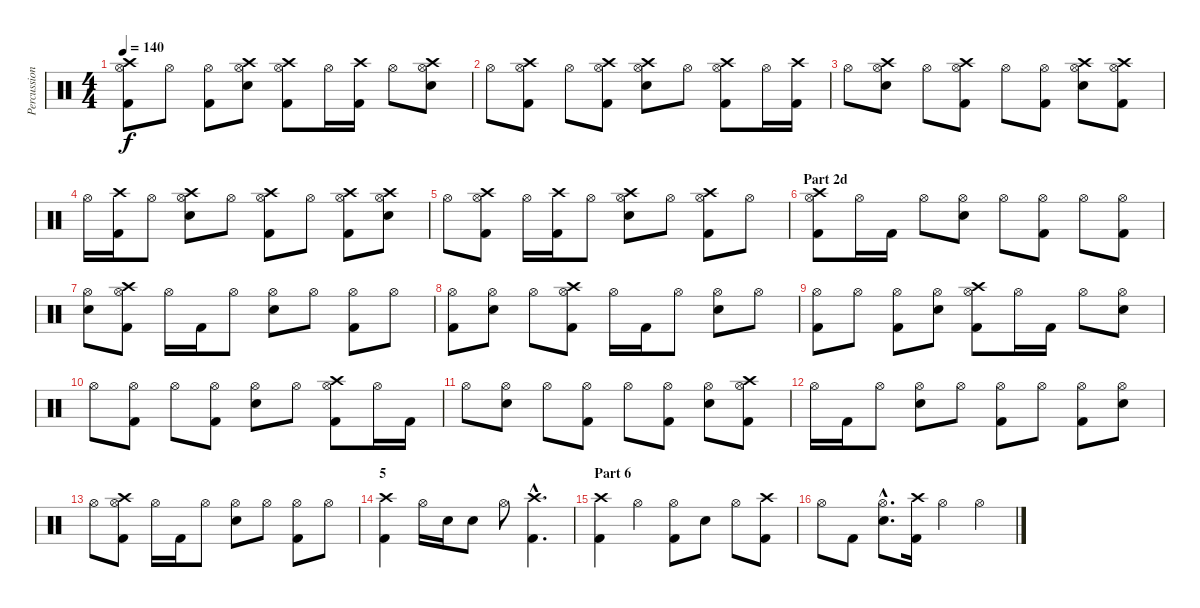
\track ("Percussion" "Percussion") {instrument percussion}
\staff {score}
\articulation defaults
\ts (4 4)
\tempo 140
\clef neutral
\ks c
("Crash high (hit)" "Hi-Hat (open)" "Kick (hit) 2").8{dy f} "Hi-Hat (open)".8 ("Hi-Hat (open)" "Kick (hit) 2").8 ("Crash high (hit)" "Hi-Hat (open)" "Electric Snare (hit)").8 ("Crash high (hit)" "Hi-Hat (open)" "Kick (hit) 2").8 "Hi-Hat (open)".16 ("Crash high (hit)" "Kick (hit) 2").16 "Hi-Hat (open)".8 ("Crash high (hit)" "Hi-Hat (open)" "Electric Snare (hit)").8 |
"Hi-Hat (open)".8 ("Crash high (hit)" "Hi-Hat (open)" "Kick (hit) 2").8 "Hi-Hat (open)".8 ("Crash high (hit)" "Hi-Hat (open)" "Kick (hit) 2").8 ("Crash high (hit)" "Hi-Hat (open)" "Electric Snare (hit)").8 "Hi-Hat (open)".8 ("Crash high (hit)" "Hi-Hat (open)" "Kick (hit) 2").8 "Hi-Hat (open)".16 ("Crash high (hit)" "Kick (hit) 2").16 |
"Hi-Hat (open)".8 ("Crash high (hit)" "Hi-Hat (open)" "Electric Snare (hit)").8 "Hi-Hat (open)".8 ("Crash high (hit)" "Hi-Hat (open)" "Kick (hit) 2").8 "Hi-Hat (open)".8 ("Hi-Hat (open)" "Kick (hit) 2").8 ("Crash high (hit)" "Hi-Hat (open)" "Electric Snare (hit)").8 ("Crash high (hit)" "Hi-Hat (open)" "Kick (hit) 2").8 |
"Hi-Hat (open)".16 ("Crash high (hit)" "Kick (hit) 2").16 "Hi-Hat (open)".8 ("Crash high (hit)" "Hi-Hat (open)" "Electric Snare (hit)").8 "Hi-Hat (open)".8 ("Crash high (hit)" "Hi-Hat (open)" "Kick (hit) 2").8 "Hi-Hat (open)".8 ("Crash high (hit)" "Hi-Hat (open)" "Kick (hit) 2").8 ("Crash high (hit)" "Hi-Hat (open)" "Electric Snare (hit)").8 |
"Hi-Hat (open)".8 ("Crash high (hit)" "Hi-Hat (open)" "Kick (hit) 2").8 "Hi-Hat (open)".16 ("Crash high (hit)" "Kick (hit) 2").16 "Hi-Hat (open)".8 ("Crash high (hit)" "Hi-Hat (open)" "Electric Snare (hit)").8 "Hi-Hat (open)".8 ("Crash high (hit)" "Hi-Hat (open)" "Kick (hit) 2").8 "Hi-Hat (open)".8 |
\section ("" "Part 2d")
("Crash high (hit)" "Hi-Hat (open)" "Kick (hit) 2").8 "Hi-Hat (open)".16 "Kick (hit) 2".16 "Hi-Hat (open)".8 ("Hi-Hat (open)" "Electric Snare (hit)").8 "Hi-Hat (open)".8 ("Hi-Hat (open)" "Kick (hit) 2").8 "Hi-Hat (open)".8 ("Hi-Hat (open)" "Kick (hit) 2").8 |
("Hi-Hat (open)" "Electric Snare (hit)").8 ("Crash high (hit)" "Hi-Hat (open)" "Kick (hit) 2").8 "Hi-Hat (open)".16 "Kick (hit) 2".16 "Hi-Hat (open)".8 ("Hi-Hat (open)" "Electric Snare (hit)").8 "Hi-Hat (open)".8 ("Hi-Hat (open)" "Kick (hit) 2").8 "Hi-Hat (open)".8 |
("Hi-Hat (open)" "Kick (hit) 2").8 ("Hi-Hat (open)" "Electric Snare (hit)").8 "Hi-Hat (open)".8 ("Crash high (hit)" "Hi-Hat (open)" "Kick (hit) 2").8 "Hi-Hat (open)".16 "Kick (hit) 2".16 "Hi-Hat (open)".8 ("Hi-Hat (open)" "Electric Snare (hit)").8 "Hi-Hat (open)".8 |
("Hi-Hat (open)" "Kick (hit) 2").8 "Hi-Hat (open)".8 ("Hi-Hat (open)" "Kick (hit) 2").8 ("Hi-Hat (open)" "Electric Snare (hit)").8 ("Crash high (hit)" "Hi-Hat (open)" "Kick (hit) 2").8 "Hi-Hat (open)".16 "Kick (hit) 2".16 "Hi-Hat (open)".8 ("Hi-Hat (open)" "Electric Snare (hit)").8 |
"Hi-Hat (open)".8 ("Hi-Hat (open)" "Kick (hit) 2").8 "Hi-Hat (open)".8 ("Hi-Hat (open)" "Kick (hit) 2").8 ("Hi-Hat (open)" "Electric Snare (hit)").8 "Hi-Hat (open)".8 ("Crash high (hit)" "Hi-Hat (open)" "Kick (hit) 2").8 "Hi-Hat (open)".16 "Kick (hit) 2".16 |
"Hi-Hat (open)".8 ("Hi-Hat (open)" "Electric Snare (hit)").8 "Hi-Hat (open)".8 ("Hi-Hat (open)" "Kick (hit) 2").8 "Hi-Hat (open)".8 ("Hi-Hat (open)" "Kick (hit) 2").8 ("Hi-Hat (open)" "Electric Snare (hit)").8 ("Crash high (hit)" "Hi-Hat (open)" "Kick (hit) 2").8 |
"Hi-Hat (open)".16 "Kick (hit) 2".16 "Hi-Hat (open)".8 ("Hi-Hat (open)" "Electric Snare (hit)").8 "Hi-Hat (open)".8 ("Hi-Hat (open)" "Kick (hit) 2").8 "Hi-Hat (open)".8 ("Hi-Hat (open)" "Kick (hit) 2").8 ("Hi-Hat (open)" "Electric Snare (hit)").8 |
"Hi-Hat (open)".8 ("Crash high (hit)" "Hi-Hat (open)" "Kick (hit) 2").8 "Hi-Hat (open)".16 "Kick (hit) 2".16 "Hi-Hat (open)".8 ("Hi-Hat (open)" "Electric Snare (hit)").8 "Hi-Hat (open)".8 ("Hi-Hat (open)" "Kick (hit) 2").8 "Hi-Hat (open)".8 |
\section ("" "5")
("Crash high (hit)" "Kick (hit) 2").4 "Hi-Hat (open)".16 "Electric Snare (hit)".16 "Electric Snare (hit)".8 "Hi-Hat (open)".8 ("Crash high (hit)"{hac} "Kick (hit) 2"{hac}).4{d} |
\section ("" "Part 6")
("Crash high (hit)" "Kick (hit) 2").4 "Hi-Hat (open)".4 ("Hi-Hat (open)" "Kick (hit) 2").8 "Electric Snare (hit)".8 "Hi-Hat (open)".8 ("Crash high (hit)" "Kick (hit) 2").8 |
"Hi-Hat (open)".8 "Kick (hit) 2".8 ("Hi-Hat (open)"{hac} "Electric Snare (hit)"{hac}).8{d} ("Crash high (hit)" "Kick (hit) 2").16 "Hi-Hat (open)".4 "Hi-Hat (open)".4
